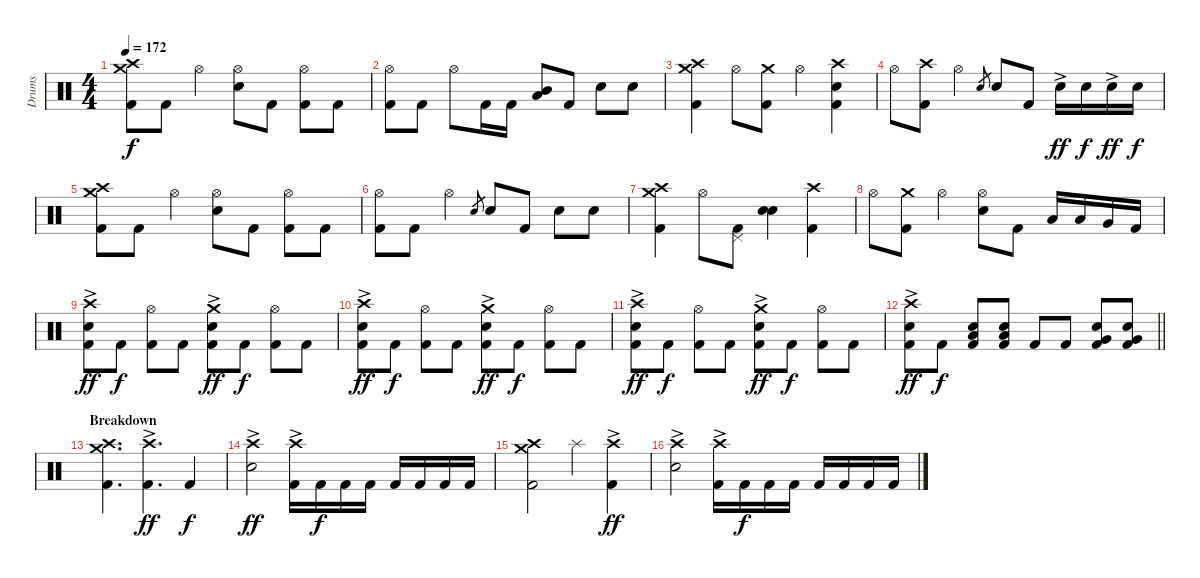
\track ("Drums" "Drums") {instrument percussion}
\staff {score}
\articulation defaults
\ts (4 4)
\tempo 172
\clef neutral
\ks c
("Crash medium (hit)" "Crash high (hit)" "Kick (hit) 2").8{dy f} "Kick (hit) 2".8 "Hi-Hat (open)".4 ("Hi-Hat (open)" "Electric Snare (hit)").8 "Kick (hit) 2".8 ("Hi-Hat (open)" "Kick (hit) 2").8 "Kick (hit) 2".8 |
("Hi-Hat (open)" "Kick (hit) 2").8 "Kick (hit) 2".8 "Hi-Hat (open)".8 "Kick (hit) 2".16 "Kick (hit) 2".16 ("Mid Tom (hit)" "Low Tom (hit)").8{bu 120} "Kick (hit) 2".8 "Electric Snare (hit)".8 "Electric Snare (hit)".8 |
("Crash medium (hit)" "Crash high (hit)" "Kick (hit) 2").4 "Hi-Hat (open)".8 ("Crash medium (hit)" "Kick (hit) 2").8 "Hi-Hat (open)".4 ("Crash high (hit)" "Electric Snare (hit)" "Kick (hit) 2").4 |
"Hi-Hat (open)".8 ("Crash high (hit)" "Kick (hit) 2").8 "Hi-Hat (open)".4 "Electric Snare (hit)".8{gr} "Electric Snare (hit)".8 "Kick (hit) 2".8 "Electric Snare (hit)"{ac}.16{dy ff} "Electric Snare (hit)".16{dy f} "Electric Snare (hit)"{ac}.16{dy ff} "Electric Snare (hit)".16{dy f} |
("Crash medium (hit)" "Crash high (hit)" "Kick (hit) 2").8 "Kick (hit) 2".8 "Hi-Hat (open)".4 ("Hi-Hat (open)" "Electric Snare (hit)").8 "Kick (hit) 2".8 ("Hi-Hat (open)" "Kick (hit) 2").8 "Kick (hit) 2".8 |
("Hi-Hat (open)" "Kick (hit) 2").8 "Kick (hit) 2".8 "Hi-Hat (open)".4 "Electric Snare (hit)".8{gr} "Electric Snare (hit)".8 "Kick (hit) 2".8 "Electric Snare (hit)".8 "Electric Snare (hit)".8 |
("Crash medium (hit)" "Crash high (hit)" "Kick (hit) 2").4 "Hi-Hat (open)".8 ("Pedal Hi-Hat (hit)" "Kick (hit) 2").8 ("Electric Snare (hit)" "Electric Snare (hit)").4{bu 120} ("Crash high (hit)" "Kick (hit) 2").4 |
"Hi-Hat (open)".8 ("Crash medium (hit)" "Kick (hit) 2").8 "Hi-Hat (open)".4 ("Hi-Hat (open)" "Electric Snare (hit)").8 "Kick (hit) 2".8 "Low Tom (hit)".16 "Low Tom (hit)".16 "Very Low Tom (hit)".16 "Kick (hit) 2".16 |
("Crash high (hit)"{ac} "Electric Snare (hit)" "Kick (hit) 2").8{dy ff} "Kick (hit) 2".8{dy f} ("Hi-Hat (open)" "Kick (hit) 2").8 "Kick (hit) 2".8 ("Crash medium (hit)"{ac} "Electric Snare (hit)" "Kick (hit) 2").8{dy ff} "Kick (hit) 2".8{dy f} ("Hi-Hat (open)" "Kick (hit) 2").8 "Kick (hit) 2".8 |
("Crash high (hit)"{ac} "Electric Snare (hit)" "Kick (hit) 2").8{dy ff} "Kick (hit) 2".8{dy f} ("Hi-Hat (open)" "Kick (hit) 2").8 "Kick (hit) 2".8 ("Crash medium (hit)"{ac} "Electric Snare (hit)" "Kick (hit) 2").8{dy ff} "Kick (hit) 2".8{dy f} ("Hi-Hat (open)" "Kick (hit) 2").8 "Kick (hit) 2".8 |
("Crash high (hit)"{ac} "Electric Snare (hit)" "Kick (hit) 2").8{dy ff} "Kick (hit) 2".8{dy f} ("Hi-Hat (open)" "Kick (hit) 2").8 "Kick (hit) 2".8 ("Crash medium (hit)"{ac} "Electric Snare (hit)" "Kick (hit) 2").8{dy ff} "Kick (hit) 2".8{dy f} ("Hi-Hat (open)" "Kick (hit) 2").8 "Kick (hit) 2".8 |
\barLineRight lightlight
("Crash high (hit)"{ac} "Electric Snare (hit)" "Kick (hit) 2").8{dy ff} "Kick (hit) 2".8{dy f} ("Low Tom (hit)" "Electric Snare (hit)" "Kick (hit) 2").8 ("Low Tom (hit)" "Electric Snare (hit)" "Kick (hit) 2").8 "Kick (hit) 2".8 "Kick (hit) 2".8 ("Very Low Tom (hit)" "Electric Snare (hit)" "Kick (hit) 2").8 ("Very Low Tom (hit)" "Electric Snare (hit)" "Kick (hit) 2").8 |
\section ("" "Breakdown")
("Crash medium (hit)" "Crash high (hit)" "Kick (hit) 2").4{d} ("Crash high (hit)"{ac} "Kick (hit) 2").4{d dy ff} "Kick (hit) 2".4{dy f} |
("Crash high (hit)"{ac} "Electric Snare (hit)").2{dy ff} ("Crash high (hit)"{ac} "Kick (hit) 2").16 "Kick (hit) 2".16{dy f} "Kick (hit) 2".16 "Kick (hit) 2".16 "Kick (hit) 2".16 "Kick (hit) 2".16 "Kick (hit) 2".16 "Kick (hit) 2".16 |
("Crash medium (hit)" "Crash high (hit)" "Kick (hit) 2").2 "Splash (hit)".4 ("Crash high (hit)"{ac} "Kick (hit) 2").4{dy ff} |
("Crash high (hit)"{ac} "Electric Snare (hit)").2 ("Crash high (hit)"{ac} "Kick (hit) 2").16 "Kick (hit) 2".16{dy f} "Kick (hit) 2".16 "Kick (hit) 2".16 "Kick (hit) 2".16 "Kick (hit) 2".16 "Kick (hit) 2".16 "Kick (hit) 2".16
